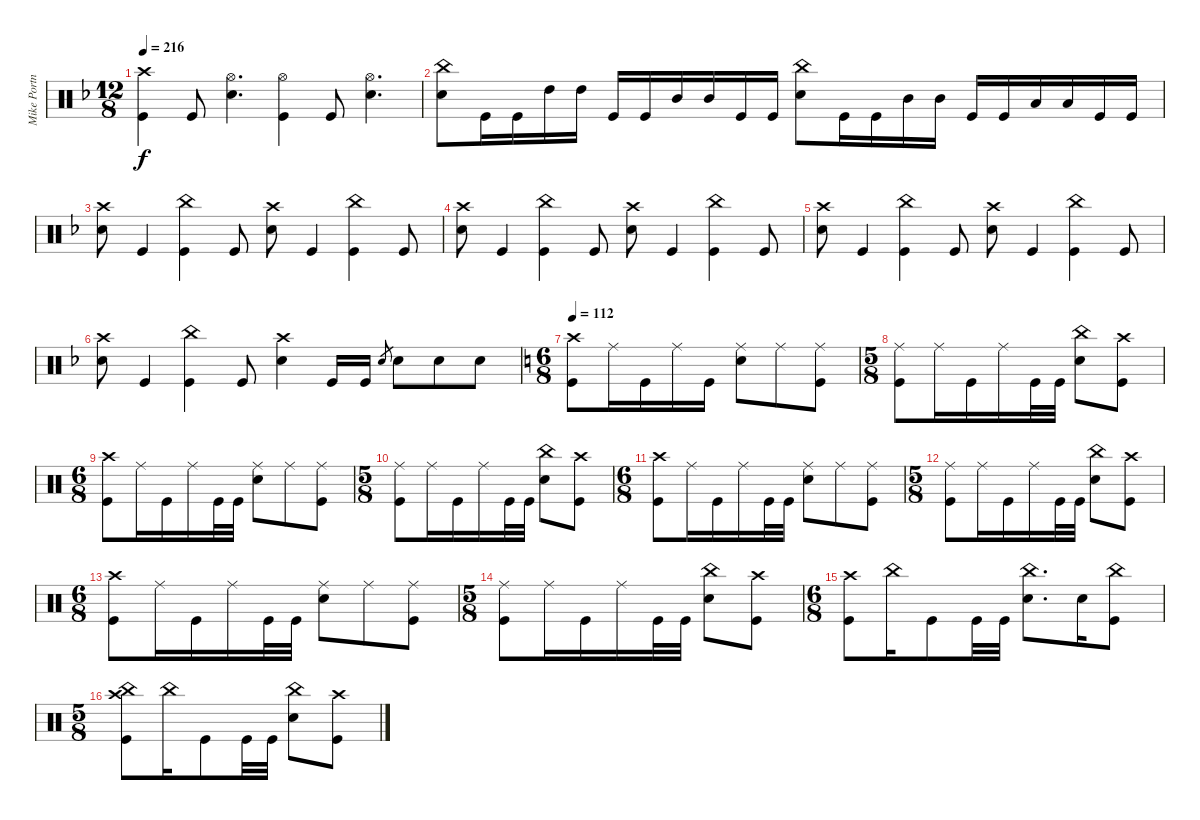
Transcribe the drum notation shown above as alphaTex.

\track ("Mike Portnoy - Drums" "Mike Portn") {instrument percussion}
\staff {score}
\articulation defaults
\ts (12 8)
\tempo 216
\clef neutral
\ks dminor
("Crash high (hit)" "Kick (hit)").4{dy f} "Kick (hit)".8 ("Hi-Hat (open)" "Snare (hit) 2").4{d} ("Hi-Hat (open)" "Kick (hit)").4 "Kick (hit)".8 ("Hi-Hat (open)" "Snare (hit) 2").4{d} |
("China (hit)" "Snare (hit) 2").8 "Kick (hit)".16 "Kick (hit)".16 "High Tom (hit)".16 "High Tom (hit)".16 "Kick (hit)".16 "Kick (hit)".16 "Mid Tom (hit)".16 "Mid Tom (hit)".16 "Kick (hit)".16 "Kick (hit)".16 ("China (hit)" "Snare (hit) 2").8 "Kick (hit)".16 "Kick (hit)".16 "Mid Tom (hit)".16 "Mid Tom (hit)".16 "Kick (hit)".16 "Kick (hit)".16 "Low Tom (hit)".16 "Low Tom (hit)".16 "Kick (hit)".16 "Kick (hit)".16 |
("Crash high (hit)" "Snare (hit) 2").8 "Kick (hit)".4 ("China (hit)" "Kick (hit)").4 "Kick (hit)".8 ("Crash high (hit)" "Snare (hit) 2").8 "Kick (hit)".4 ("China (hit)" "Kick (hit)").4 "Kick (hit)".8 |
("Crash high (hit)" "Snare (hit) 2").8 "Kick (hit)".4 ("China (hit)" "Kick (hit)").4 "Kick (hit)".8 ("Crash high (hit)" "Snare (hit) 2").8 "Kick (hit)".4 ("China (hit)" "Kick (hit)").4 "Kick (hit)".8 |
("Crash high (hit)" "Snare (hit) 2").8 "Kick (hit)".4 ("China (hit)" "Kick (hit)").4 "Kick (hit)".8 ("Crash high (hit)" "Snare (hit) 2").8 "Kick (hit)".4 ("China (hit)" "Kick (hit)").4 "Kick (hit)".8 |
("Crash high (hit)" "Snare (hit) 2").8 "Kick (hit)".4 ("China (hit)" "Kick (hit)").4 "Kick (hit)".8 ("Crash high (hit)" "Snare (hit) 2").4 "Kick (hit)".16 "Kick (hit)".16 "Snare (hit) 2".8{gr} "Snare (hit) 2".8 "Snare (hit) 2".8 "Snare (hit) 2".8 |
\ts (6 8)
\tempo 112
\ks aminor
("Crash high (hit)" "Kick (hit)").8 "Ride (middle)".16 "Kick (hit)".16 "Ride (middle)".16 "Kick (hit)".16 ("Ride (middle)" "Snare (hit) 2").8 "Ride (middle)".8 ("Ride (middle)" "Kick (hit)").8 |
\ts (5 8)
("Ride (middle)" "Kick (hit)").8 "Ride (middle)".16 "Kick (hit)".16 "Ride (middle)".16 "Kick (hit)".32 "Kick (hit)".32 ("China (hit)" "Snare (hit) 2").8 ("Crash high (hit)" "Kick (hit)").8 |
\ts (6 8)
("Crash high (hit)" "Kick (hit)").8 "Ride (middle)".16 "Kick (hit)".16 "Ride (middle)".16 "Kick (hit)".32 "Kick (hit)".32 ("Ride (middle)" "Snare (hit) 2").8 "Ride (middle)".8 ("Ride (middle)" "Kick (hit)").8 |
\ts (5 8)
("Ride (middle)" "Kick (hit)").8 "Ride (middle)".16 "Kick (hit)".16 "Ride (middle)".16 "Kick (hit)".32 "Kick (hit)".32 ("China (hit)" "Snare (hit) 2").8 ("Crash high (hit)" "Kick (hit)").8 |
\ts (6 8)
("Crash high (hit)" "Kick (hit)").8 "Ride (middle)".16 "Kick (hit)".16 "Ride (middle)".16 "Kick (hit)".32 "Kick (hit)".32 ("Ride (middle)" "Snare (hit) 2").8 "Ride (middle)".8 ("Ride (middle)" "Kick (hit)").8 |
\ts (5 8)
("Ride (middle)" "Kick (hit)").8 "Ride (middle)".16 "Kick (hit)".16 "Ride (middle)".16 "Kick (hit)".32 "Kick (hit)".32 ("China (hit)" "Snare (hit) 2").8 ("Crash high (hit)" "Kick (hit)").8 |
\ts (6 8)
("Crash high (hit)" "Kick (hit)").8 "Ride (middle)".16 "Kick (hit)".16 "Ride (middle)".16 "Kick (hit)".32 "Kick (hit)".32 ("Ride (middle)" "Snare (hit) 2").8 "Ride (middle)".8 ("Ride (middle)" "Kick (hit)").8 |
\ts (5 8)
("Ride (middle)" "Kick (hit)").8 "Ride (middle)".16 "Kick (hit)".16 "Ride (middle)".16 "Kick (hit)".32 "Kick (hit)".32 ("China (hit)" "Snare (hit) 2").8 ("Crash high (hit)" "Kick (hit)").8 |
\ts (6 8)
("Crash high (hit)" "Kick (hit)").8 "China (hit)".16 "Kick (hit)".8 "Kick (hit)".32 "Kick (hit)".32 ("China (hit)" "Snare (hit) 2").8{d} "Snare (hit) 2".16 ("China (hit)" "Kick (hit)").8 |
\ts (5 8)
("Crash high (hit)" "China (hit)" "Kick (hit)").8 "China (hit)".16 "Kick (hit)".8 "Kick (hit)".32 "Kick (hit)".32 ("China (hit)" "Snare (hit) 2").8 ("Crash high (hit)" "Kick (hit)").8
